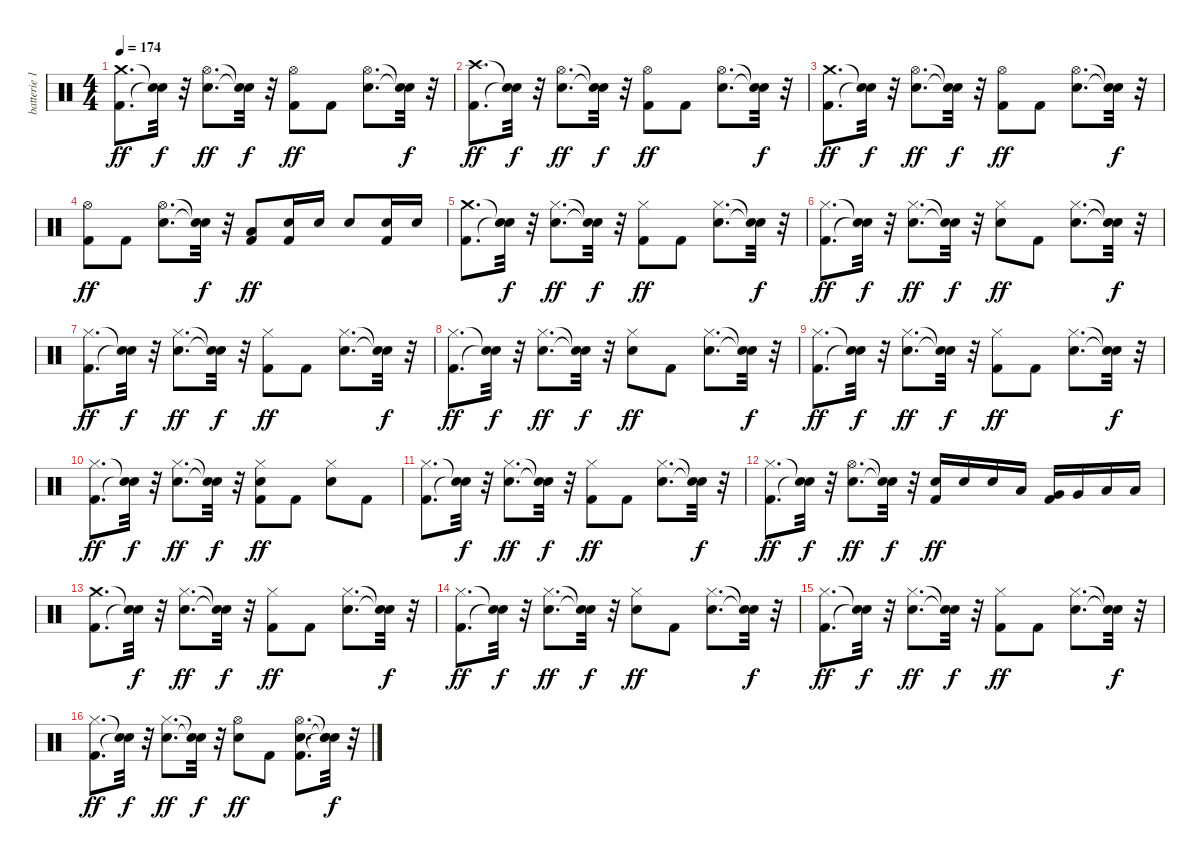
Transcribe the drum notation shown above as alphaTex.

\track ("batterie 1" "batterie 1") {instrument percussion}
\staff {score}
\articulation defaults
\ts (4 4)
\tempo 174
\clef neutral
\ks c
("Kick (hit) 2" "Crash medium (hit)").8{d dy ff} ("Snare (hit)"{t} "Snare (hit)"{t}).32{dy f} r.32 ("Electric Snare (hit)" "Hi-Hat (open)").8{d dy ff} ("Snare (hit)"{t} "Snare (hit)"{t}).32{dy f} r.32 ("Kick (hit) 2" "Hi-Hat (open)").8{dy ff} "Kick (hit) 2".8 ("Electric Snare (hit)" "Hi-Hat (open)").8{d} ("Snare (hit)"{t} "Snare (hit)"{t}).32{dy f} r.32 |
("Kick (hit) 2" "Crash high (hit)").8{d dy ff} ("Snare (hit)"{t} "Snare (hit)"{t}).32{dy f} r.32 ("Electric Snare (hit)" "Hi-Hat (open)").8{d dy ff} ("Snare (hit)"{t} "Snare (hit)"{t}).32{dy f} r.32 ("Kick (hit) 2" "Hi-Hat (open)").8{dy ff} "Kick (hit) 2".8 ("Electric Snare (hit)" "Hi-Hat (open)").8{d} ("Snare (hit)"{t} "Snare (hit)"{t}).32{dy f} r.32 |
("Kick (hit) 2" "Crash medium (hit)").8{d dy ff} ("Snare (hit)"{t} "Snare (hit)"{t}).32{dy f} r.32 ("Electric Snare (hit)" "Hi-Hat (open)").8{d dy ff} ("Snare (hit)"{t} "Snare (hit)"{t}).32{dy f} r.32 ("Kick (hit) 2" "Hi-Hat (open)").8{dy ff} "Kick (hit) 2".8 ("Electric Snare (hit)" "Hi-Hat (open)").8{d} ("Snare (hit)"{t} "Snare (hit)"{t}).32{dy f} r.32 |
("Kick (hit) 2" "Hi-Hat (open)").8{dy ff} "Kick (hit) 2".8 ("Electric Snare (hit)" "Hi-Hat (open)").8{d} ("Snare (hit)"{t} "Snare (hit)"{t}).32{dy f} r.32 ("Kick (hit) 2" "Low Tom (hit)").8{dy ff} ("Kick (hit) 2" "Electric Snare (hit)").16 "Electric Snare (hit)".16 "Electric Snare (hit)".8 ("Kick (hit) 2" "Electric Snare (hit)").16 "Electric Snare (hit)".16 |
("Kick (hit) 2" "Crash medium (hit)").8{d} ("Snare (hit)"{t} "Snare (hit)"{t}).32{dy f} r.32 ("Electric Snare (hit)" "Hi-Hat (closed)").8{d dy ff} ("Snare (hit)"{t} "Snare (hit)"{t}).32{dy f} r.32 ("Kick (hit) 2" "Hi-Hat (closed)").8{dy ff} "Kick (hit) 2".8 ("Electric Snare (hit)" "Hi-Hat (closed)").8{d} ("Snare (hit)"{t} "Snare (hit)"{t}).32{dy f} r.32 |
("Kick (hit) 2" "Hi-Hat (closed)").8{d dy ff} ("Snare (hit)"{t} "Snare (hit)"{t}).32{dy f} r.32 ("Electric Snare (hit)" "Hi-Hat (closed)").8{d dy ff} ("Snare (hit)"{t} "Snare (hit)"{t}).32{dy f} r.32 ("Electric Snare (hit)" "Hi-Hat (closed)").8{dy ff} "Kick (hit) 2".8 ("Electric Snare (hit)" "Hi-Hat (closed)").8{d} ("Snare (hit)"{t} "Snare (hit)"{t}).32{dy f} r.32 |
("Kick (hit) 2" "Hi-Hat (closed)").8{d dy ff} ("Snare (hit)"{t} "Snare (hit)"{t}).32{dy f} r.32 ("Electric Snare (hit)" "Hi-Hat (closed)").8{d dy ff} ("Snare (hit)"{t} "Snare (hit)"{t}).32{dy f} r.32 ("Kick (hit) 2" "Hi-Hat (closed)").8{dy ff} "Kick (hit) 2".8 ("Electric Snare (hit)" "Hi-Hat (closed)").8{d} ("Snare (hit)"{t} "Snare (hit)"{t}).32{dy f} r.32 |
("Kick (hit) 2" "Hi-Hat (closed)").8{d dy ff} ("Snare (hit)"{t} "Snare (hit)"{t}).32{dy f} r.32 ("Electric Snare (hit)" "Hi-Hat (closed)").8{d dy ff} ("Snare (hit)"{t} "Snare (hit)"{t}).32{dy f} r.32 ("Electric Snare (hit)" "Hi-Hat (closed)").8{dy ff} "Kick (hit) 2".8 ("Electric Snare (hit)" "Hi-Hat (closed)").8{d} ("Snare (hit)"{t} "Snare (hit)"{t}).32{dy f} r.32 |
("Kick (hit) 2" "Hi-Hat (closed)").8{d dy ff} ("Snare (hit)"{t} "Snare (hit)"{t}).32{dy f} r.32 ("Electric Snare (hit)" "Hi-Hat (closed)").8{d dy ff} ("Snare (hit)"{t} "Snare (hit)"{t}).32{dy f} r.32 ("Kick (hit) 2" "Hi-Hat (closed)").8{dy ff} "Kick (hit) 2".8 ("Electric Snare (hit)" "Hi-Hat (closed)").8{d} ("Snare (hit)"{t} "Snare (hit)"{t}).32{dy f} r.32 |
("Kick (hit) 2" "Hi-Hat (closed)").8{d dy ff} ("Snare (hit)"{t} "Snare (hit)"{t}).32{dy f} r.32 ("Electric Snare (hit)" "Hi-Hat (closed)").8{d dy ff} ("Snare (hit)"{t} "Snare (hit)"{t}).32{dy f} r.32 ("Kick (hit) 2" "Electric Snare (hit)" "Hi-Hat (closed)").8{dy ff} "Kick (hit) 2".8 ("Electric Snare (hit)" "Hi-Hat (closed)").8 "Kick (hit) 2".8 |
("Kick (hit) 2" "Hi-Hat (closed)").8{d} ("Snare (hit)"{t} "Snare (hit)"{t}).32{dy f} r.32 ("Electric Snare (hit)" "Hi-Hat (closed)").8{d dy ff} ("Snare (hit)"{t} "Snare (hit)"{t}).32{dy f} r.32 ("Kick (hit) 2" "Hi-Hat (closed)").8{dy ff} "Kick (hit) 2".8 ("Electric Snare (hit)" "Hi-Hat (closed)").8{d} ("Snare (hit)"{t} "Snare (hit)"{t}).32{dy f} r.32 |
("Kick (hit) 2" "Hi-Hat (closed)").8{d dy ff} ("Snare (hit)"{t} "Snare (hit)"{t}).32{dy f} r.32 ("Electric Snare (hit)" "Hi-Hat (open)").8{d dy ff} ("Snare (hit)"{t} "Snare (hit)"{t}).32{dy f} r.32 ("Kick (hit) 2" "Electric Snare (hit)").16{dy ff} "Electric Snare (hit)".16 "Electric Snare (hit)".16 "Low Tom (hit)".16 ("Kick (hit) 2" "Very Low Tom (hit)").16 "Very Low Tom (hit)".16 "Low Floor Tom (hit)".16 "Low Floor Tom (hit)".16 |
("Kick (hit) 2" "Crash medium (hit)").8{d} ("Snare (hit)"{t} "Snare (hit)"{t}).32{dy f} r.32 ("Electric Snare (hit)" "Hi-Hat (closed)").8{d dy ff} ("Snare (hit)"{t} "Snare (hit)"{t}).32{dy f} r.32 ("Kick (hit) 2" "Hi-Hat (closed)").8{dy ff} "Kick (hit) 2".8 ("Electric Snare (hit)" "Hi-Hat (closed)").8{d} ("Snare (hit)"{t} "Snare (hit)"{t}).32{dy f} r.32 |
("Kick (hit) 2" "Hi-Hat (closed)").8{d dy ff} ("Snare (hit)"{t} "Snare (hit)"{t}).32{dy f} r.32 ("Electric Snare (hit)" "Hi-Hat (closed)").8{d dy ff} ("Snare (hit)"{t} "Snare (hit)"{t}).32{dy f} r.32 ("Electric Snare (hit)" "Hi-Hat (closed)").8{dy ff} "Kick (hit) 2".8 ("Electric Snare (hit)" "Hi-Hat (closed)").8{d} ("Snare (hit)"{t} "Snare (hit)"{t}).32{dy f} r.32 |
("Kick (hit) 2" "Hi-Hat (closed)").8{d dy ff} ("Snare (hit)"{t} "Snare (hit)"{t}).32{dy f} r.32 ("Electric Snare (hit)" "Hi-Hat (closed)").8{d dy ff} ("Snare (hit)"{t} "Snare (hit)"{t}).32{dy f} r.32 ("Kick (hit) 2" "Hi-Hat (closed)").8{dy ff} "Kick (hit) 2".8 ("Electric Snare (hit)" "Hi-Hat (closed)").8{d} ("Snare (hit)"{t} "Snare (hit)"{t}).32{dy f} r.32 |
("Kick (hit) 2" "Hi-Hat (closed)").8{d dy ff} ("Snare (hit)"{t} "Snare (hit)"{t}).32{dy f} r.32 ("Electric Snare (hit)" "Hi-Hat (closed)").8{d dy ff} ("Snare (hit)"{t} "Snare (hit)"{t}).32{dy f} r.32 ("Electric Snare (hit)" "Hi-Hat (open)").8{dy ff} "Kick (hit) 2".8 ("Kick (hit) 2" "Electric Snare (hit)" "Hi-Hat (open)").8{d} ("Snare (hit)"{t} "Snare (hit)"{t} "Snare (hit)"{t}).32{dy f} r.32
